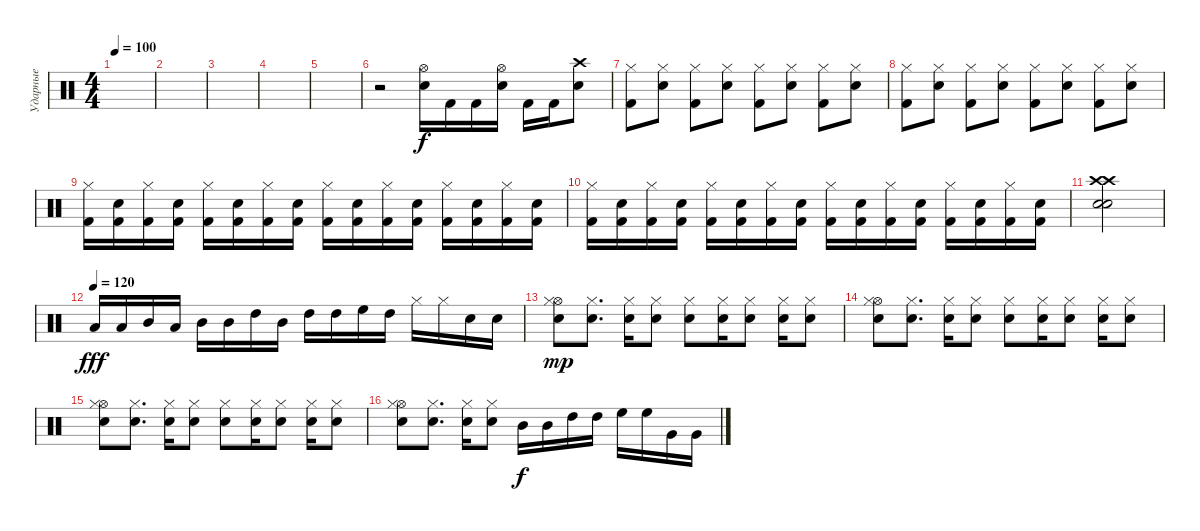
\track ("Ударные" "Ударные") {instrument percussion}
\staff {score}
\articulation defaults
\ts (4 4)
\tempo 100
\clef neutral
\ks c
|
|
|
|
|
r.2 ("Hi-Hat (open)" "Snare (hit) 2").16 "Kick (hit) 2".16 "Kick (hit) 2".16 ("Hi-Hat (open)" "Snare (hit) 2").16 "Kick (hit) 2".16 "Kick (hit) 2".16 ("Crash high (hit)" "Snare (hit) 2").8 |
("Hi-Hat (closed)" "Kick (hit) 2").8 ("Hi-Hat (closed)" "Snare (hit) 2").8 ("Hi-Hat (closed)" "Kick (hit) 2").8 ("Hi-Hat (closed)" "Snare (hit) 2").8 ("Hi-Hat (closed)" "Kick (hit) 2").8 ("Hi-Hat (closed)" "Snare (hit) 2").8 ("Hi-Hat (closed)" "Kick (hit) 2").8 ("Hi-Hat (closed)" "Snare (hit) 2").8 |
("Hi-Hat (closed)" "Kick (hit) 2").8 ("Hi-Hat (closed)" "Snare (hit) 2").8 ("Hi-Hat (closed)" "Kick (hit) 2").8 ("Hi-Hat (closed)" "Snare (hit) 2").8 ("Hi-Hat (closed)" "Kick (hit) 2").8 ("Hi-Hat (closed)" "Snare (hit) 2").8 ("Hi-Hat (closed)" "Kick (hit) 2").8 ("Hi-Hat (closed)" "Snare (hit) 2").8 |
("Hi-Hat (closed)" "Kick (hit) 2").16 ("Kick (hit) 2" "Snare (hit) 2").16 ("Hi-Hat (closed)" "Kick (hit) 2").16 ("Kick (hit) 2" "Snare (hit) 2").16 ("Hi-Hat (closed)" "Kick (hit) 2").16 ("Kick (hit) 2" "Snare (hit) 2").16 ("Hi-Hat (closed)" "Kick (hit) 2").16 ("Kick (hit) 2" "Snare (hit) 2").16 ("Hi-Hat (closed)" "Kick (hit) 2").16 ("Kick (hit) 2" "Snare (hit) 2").16 ("Hi-Hat (closed)" "Kick (hit) 2").16 ("Kick (hit) 2" "Snare (hit) 2").16 ("Hi-Hat (closed)" "Kick (hit) 2").16 ("Kick (hit) 2" "Snare (hit) 2").16 ("Hi-Hat (closed)" "Kick (hit) 2").16 ("Kick (hit) 2" "Snare (hit) 2").16 |
("Hi-Hat (closed)" "Kick (hit) 2").16 ("Kick (hit) 2" "Snare (hit) 2").16 ("Hi-Hat (closed)" "Kick (hit) 2").16 ("Kick (hit) 2" "Snare (hit) 2").16 ("Hi-Hat (closed)" "Kick (hit) 2").16 ("Kick (hit) 2" "Snare (hit) 2").16 ("Hi-Hat (closed)" "Kick (hit) 2").16 ("Kick (hit) 2" "Snare (hit) 2").16 ("Hi-Hat (closed)" "Kick (hit) 2").16 ("Kick (hit) 2" "Snare (hit) 2").16 ("Hi-Hat (closed)" "Kick (hit) 2").16 ("Kick (hit) 2" "Snare (hit) 2").16 ("Hi-Hat (closed)" "Kick (hit) 2").16 ("Kick (hit) 2" "Snare (hit) 2").16 ("Hi-Hat (closed)" "Kick (hit) 2").16 ("Kick (hit) 2" "Snare (hit) 2").16 |
("Crash high (hit)" "Crash high (hit)" "Snare (hit) 2" "Electric Snare (hit)").2 |
\tempo (120)
"Low Tom (hit)".16{dy fff} "Low Tom (hit)".16 "Mid Tom (hit)".16 "Low Tom (hit)".16 "Mid Tom (hit)".16 "Mid Tom (hit)".16 "High Tom (hit)".16 "Mid Tom (hit)".16 "High Tom (hit)".16 "High Tom (hit)".16 "High Floor Tom (hit)".16 "High Tom (hit)".16 "Hi-Hat (closed)".16 "Hi-Hat (closed)".16 "Snare (hit) 2".16 "Snare (hit) 2".16 |
("Hi-Hat (open)" "Hi-Hat (closed)" "Snare (hit) 2").8{dy mp} ("Hi-Hat (closed)" "Snare (hit) 2").8{d} ("Hi-Hat (closed)" "Snare (hit) 2").16 ("Hi-Hat (closed)" "Snare (hit) 2").8 ("Hi-Hat (closed)" "Snare (hit) 2").8 ("Hi-Hat (closed)" "Snare (hit) 2").16 ("Hi-Hat (closed)" "Snare (hit) 2").8 ("Hi-Hat (closed)" "Snare (hit) 2").16 ("Hi-Hat (closed)" "Snare (hit) 2").8 |
("Hi-Hat (open)" "Hi-Hat (closed)" "Snare (hit) 2").8 ("Hi-Hat (closed)" "Snare (hit) 2").8{d} ("Hi-Hat (closed)" "Snare (hit) 2").16 ("Hi-Hat (closed)" "Snare (hit) 2").8 ("Hi-Hat (closed)" "Snare (hit) 2").8 ("Hi-Hat (closed)" "Snare (hit) 2").16 ("Hi-Hat (closed)" "Snare (hit) 2").8 ("Hi-Hat (closed)" "Snare (hit) 2").16 ("Hi-Hat (closed)" "Snare (hit) 2").8 |
("Hi-Hat (open)" "Hi-Hat (closed)" "Snare (hit) 2").8 ("Hi-Hat (closed)" "Snare (hit) 2").8{d} ("Hi-Hat (closed)" "Snare (hit) 2").16 ("Hi-Hat (closed)" "Snare (hit) 2").8 ("Hi-Hat (closed)" "Snare (hit) 2").8 ("Hi-Hat (closed)" "Snare (hit) 2").16 ("Hi-Hat (closed)" "Snare (hit) 2").8 ("Hi-Hat (closed)" "Snare (hit) 2").16 ("Hi-Hat (closed)" "Snare (hit) 2").8 |
("Hi-Hat (open)" "Hi-Hat (closed)" "Snare (hit) 2").8 ("Hi-Hat (closed)" "Snare (hit) 2").8{d} ("Hi-Hat (closed)" "Snare (hit) 2").16 ("Hi-Hat (closed)" "Snare (hit) 2").8 "Mid Tom (hit)".16{dy f} "Mid Tom (hit)".16 "High Tom (hit)".16 "High Tom (hit)".16 "High Floor Tom (hit)".16 "High Floor Tom (hit)".16 "Very Low Tom (hit)".16 "Very Low Tom (hit)".16
